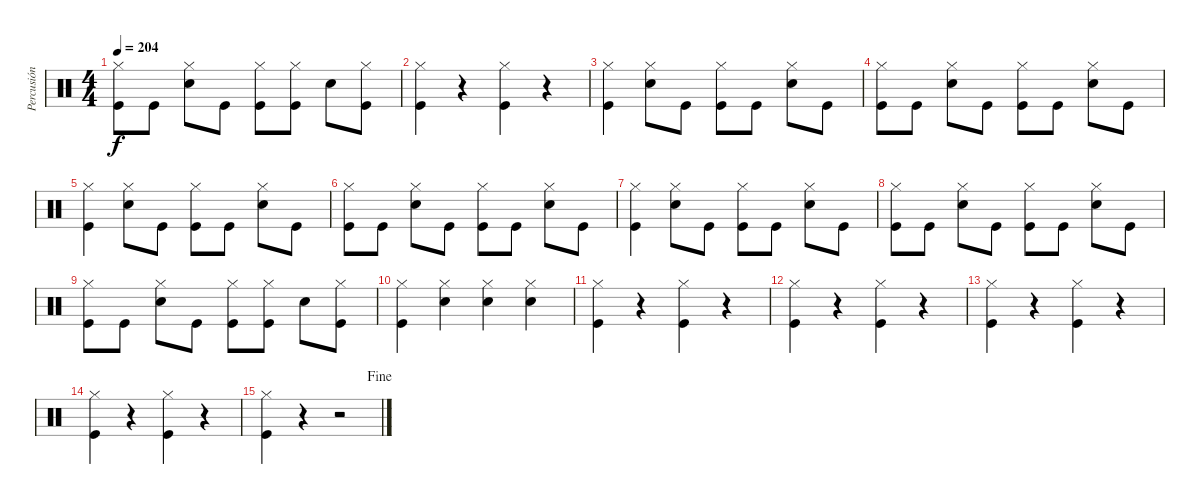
\track ("Percusión" "Percusión") {instrument percussion}
\staff {score}
\articulation defaults
\ts (4 4)
\tempo 204
\clef neutral
\ks c
("Hi-Hat (closed)" "Kick (hit)").8{dy f} "Kick (hit)".8 ("Hi-Hat (closed)" "Snare (hit) 2").8 "Kick (hit)".8 ("Hi-Hat (closed)" "Kick (hit)").8 ("Hi-Hat (closed)" "Kick (hit)").8 "Snare (hit) 2".8 ("Hi-Hat (closed)" "Kick (hit)").8 |
("Hi-Hat (closed)" "Kick (hit)").4 r.4 ("Hi-Hat (closed)" "Kick (hit)").4 r.4 |
("Hi-Hat (closed)" "Kick (hit)").4 ("Hi-Hat (closed)" "Snare (hit) 2").8 "Kick (hit)".8 ("Hi-Hat (closed)" "Kick (hit)").8 "Kick (hit)".8 ("Hi-Hat (closed)" "Snare (hit) 2").8 "Kick (hit)".8 |
("Hi-Hat (closed)" "Kick (hit)").8 "Kick (hit)".8 ("Hi-Hat (closed)" "Snare (hit) 2").8 "Kick (hit)".8 ("Hi-Hat (closed)" "Kick (hit)").8 "Kick (hit)".8 ("Hi-Hat (closed)" "Snare (hit) 2").8 "Kick (hit)".8 |
("Hi-Hat (closed)" "Kick (hit)").4 ("Hi-Hat (closed)" "Snare (hit) 2").8 "Kick (hit)".8 ("Hi-Hat (closed)" "Kick (hit)").8 "Kick (hit)".8 ("Hi-Hat (closed)" "Snare (hit) 2").8 "Kick (hit)".8 |
("Hi-Hat (closed)" "Kick (hit)").8 "Kick (hit)".8 ("Hi-Hat (closed)" "Snare (hit) 2").8 "Kick (hit)".8 ("Hi-Hat (closed)" "Kick (hit)").8 "Kick (hit)".8 ("Hi-Hat (closed)" "Snare (hit) 2").8 "Kick (hit)".8 |
("Hi-Hat (closed)" "Kick (hit)").4 ("Hi-Hat (closed)" "Snare (hit) 2").8 "Kick (hit)".8 ("Hi-Hat (closed)" "Kick (hit)").8 "Kick (hit)".8 ("Hi-Hat (closed)" "Snare (hit) 2").8 "Kick (hit)".8 |
("Hi-Hat (closed)" "Kick (hit)").8 "Kick (hit)".8 ("Hi-Hat (closed)" "Snare (hit) 2").8 "Kick (hit)".8 ("Hi-Hat (closed)" "Kick (hit)").8 "Kick (hit)".8 ("Hi-Hat (closed)" "Snare (hit) 2").8 "Kick (hit)".8 |
("Hi-Hat (closed)" "Kick (hit)").8 "Kick (hit)".8 ("Hi-Hat (closed)" "Snare (hit) 2").8 "Kick (hit)".8 ("Hi-Hat (closed)" "Kick (hit)").8 ("Hi-Hat (closed)" "Kick (hit)").8 "Snare (hit) 2".8 ("Hi-Hat (closed)" "Kick (hit)").8 |
("Hi-Hat (closed)" "Kick (hit)").4 ("Hi-Hat (closed)" "Snare (hit) 2").4 ("Hi-Hat (closed)" "Snare (hit) 2").4 ("Hi-Hat (closed)" "Snare (hit) 2").4 |
("Hi-Hat (closed)" "Kick (hit)").4 r.4 ("Hi-Hat (closed)" "Kick (hit)").4 r.4 |
("Hi-Hat (closed)" "Kick (hit)").4 r.4 ("Hi-Hat (closed)" "Kick (hit)").4 r.4 |
("Hi-Hat (closed)" "Kick (hit)").4 r.4 ("Hi-Hat (closed)" "Kick (hit)").4 r.4 |
("Hi-Hat (closed)" "Kick (hit)").4 r.4 ("Hi-Hat (closed)" "Kick (hit)").4 r.4 |
\jump fine
("Hi-Hat (closed)" "Kick (hit)").4 r.4 r.2
